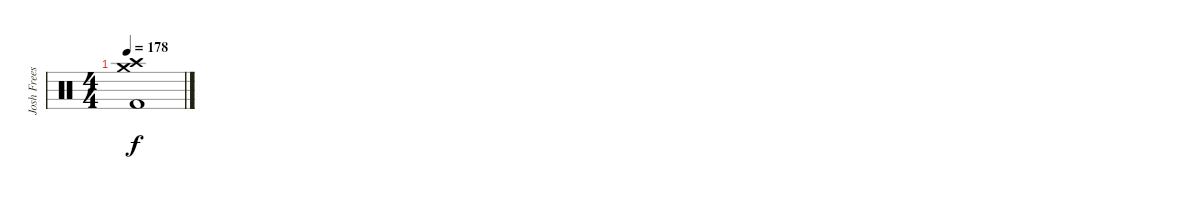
\track ("Josh Freese" "Josh Frees") {instrument percussion}
\staff {score}
\articulation defaults
\ts (4 4)
\tempo 178
\clef neutral
\ks c
("Crash medium (hit)" "Crash high (hit)" "Kick (hit) 2").1{dy f}
